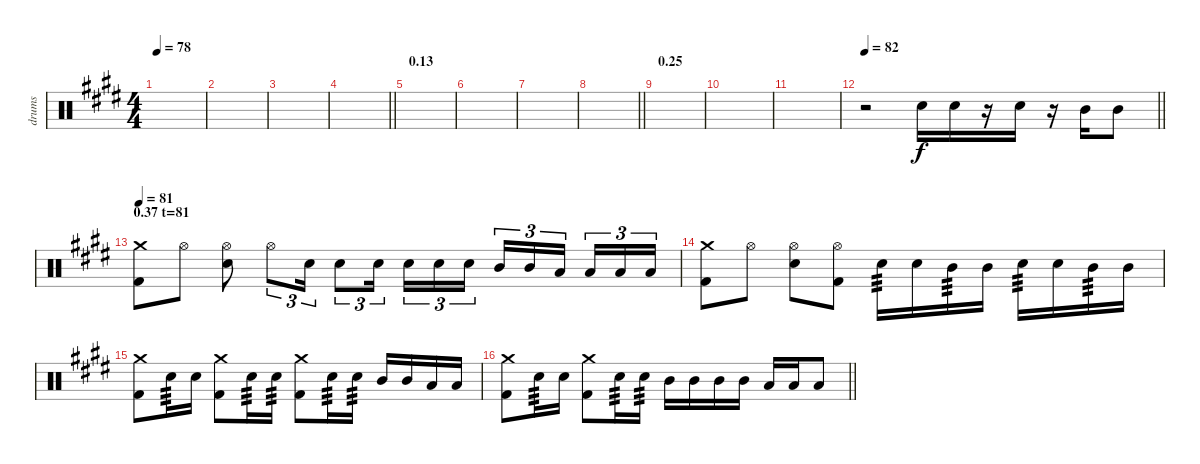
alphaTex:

\track ("drums" "drums") {instrument percussion}
\staff {score}
\articulation defaults
\ts (4 4)
\tempo 78
\clef neutral
\ks e
|
|
|
\barLineRight lightlight
|
\section ("" "0.13")
|
|
|
\barLineRight lightlight
|
\section ("" "0.25")
|
|
|
\tempo 82
\barLineRight lightlight
r.2 "Electric Snare (hit)".16 "Electric Snare (hit)".16 r.16 "Electric Snare (hit)".16 r.16 "Mid Tom (hit)".16 "Mid Tom (hit)".8 |
\section ("" "0.37 t=81")
\tempo 81
("Crash medium (hit)" "Kick (hit) 2").8 "Hi-Hat (open)".8 ("Hi-Hat (open)" "Electric Snare (hit)").8 "Hi-Hat (open)".8{tu (3 2)} "Electric Snare (hit)".16{tu (3 2)} "Electric Snare (hit)".8{tu (3 2)} "Electric Snare (hit)".16{tu (3 2) beam splitsecondary} "Electric Snare (hit)".16{tu (3 2)} "Electric Snare (hit)".16{tu (3 2)} "Electric Snare (hit)".16{tu (3 2)} "Mid Tom (hit)".16{tu (3 2)} "Mid Tom (hit)".16{tu (3 2)} "Low Tom (hit)".16{tu (3 2) beam splitsecondary} "Low Tom (hit)".16{tu (3 2)} "Low Tom (hit)".16{tu (3 2)} "Low Tom (hit)".16{tu (3 2)} |
("Crash medium (hit)" "Kick (hit) 2").8 "Hi-Hat (open)".8 ("Hi-Hat (open)" "Electric Snare (hit)").8 ("Hi-Hat (open)" "Kick (hit) 2").8 "Electric Snare (hit)".16{tp 3} "Electric Snare (hit)".16 "Mid Tom (hit)".16{tp 3} "Mid Tom (hit)".16 "Electric Snare (hit)".16{tp 3} "Electric Snare (hit)".16 "Mid Tom (hit)".16{tp 3} "Mid Tom (hit)".16 |
("Crash medium (hit)" "Kick (hit) 2").8 "Electric Snare (hit)".16{tp 3} "Electric Snare (hit)".16 ("Crash medium (hit)" "Kick (hit) 2").8 "Electric Snare (hit)".16{tp 3} "Electric Snare (hit)".16{tp 3} ("Crash medium (hit)" "Kick (hit) 2").8 "Electric Snare (hit)".16{tp 3} "Electric Snare (hit)".16{tp 3} "Mid Tom (hit)".16 "Mid Tom (hit)".16 "Low Tom (hit)".16 "Low Tom (hit)".16 |
\barLineRight lightlight
("Crash medium (hit)" "Kick (hit) 2").8 "Electric Snare (hit)".16{tp 3} "Electric Snare (hit)".16 ("Crash medium (hit)" "Kick (hit) 2").8 "Electric Snare (hit)".16{tp 3} "Electric Snare (hit)".16{tp 3} "Mid Tom (hit)".16 "Mid Tom (hit)".16 "Mid Tom (hit)".16 "Mid Tom (hit)".16 "Low Tom (hit)".16 "Low Tom (hit)".16 "Low Tom (hit)".8
